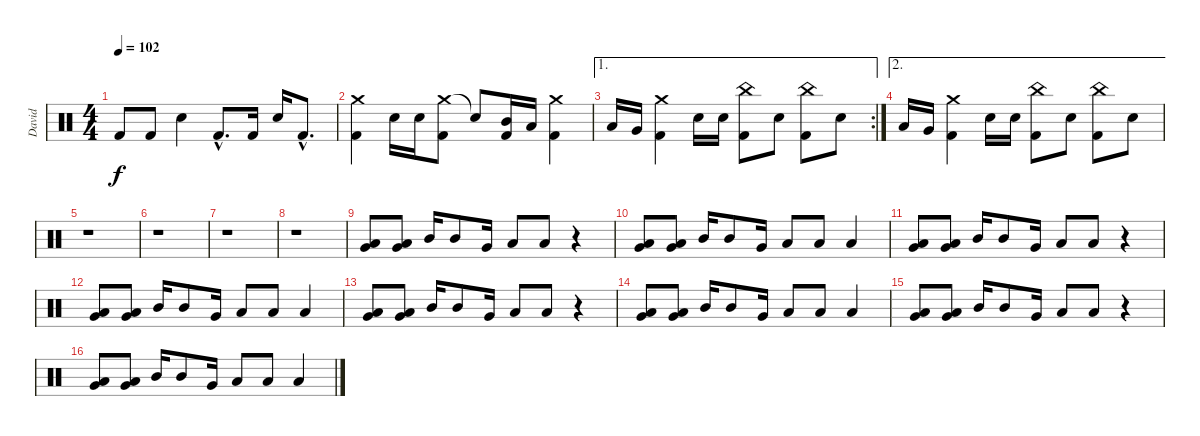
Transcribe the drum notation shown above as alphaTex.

\track ("David" "David") {instrument percussion}
\staff {score}
\articulation defaults
\ts (4 4)
\tempo 102
\clef neutral
\ks c "Kick (hit) 2".8{dy f} "Kick (hit) 2".8 "Snare (hit) 2".4 "Kick (hit) 2"{hac}.8{d} "Kick (hit) 2".16 "Snare (hit) 2".16 "Kick (hit) 2"{hac}.8{d}
|
("Crash medium (hit)" "Kick (hit) 2").4 "Snare (hit) 2".16 "Snare (hit) 2".16 ("Crash medium (hit)" "Kick (hit) 2").8 "Snare (hit)"{t}.8 ("Mid Tom (hit)" "Kick (hit) 2").16 "Low Tom (hit)".16 ("Crash medium (hit)" "Kick (hit) 2").4 |
\ae 1
\rc 2 "Low Tom (hit)".16 "Very Low Tom (hit)".16
("Crash medium (hit)" "Kick (hit) 2").4 "Snare (hit) 2".16 "Snare (hit) 2".16 ("China (hit)" "Kick (hit) 2").8 "Snare (hit) 2".8 ("China (hit)" "Kick (hit) 2").8 "Snare (hit) 2".8 |
\ae 2 "Low Tom (hit)".16 "Very Low Tom (hit)".16
("Crash medium (hit)" "Kick (hit) 2").4 "Snare (hit) 2".16 "Snare (hit) 2".16 ("China (hit)" "Kick (hit) 2").8 "Snare (hit) 2".8 ("China (hit)" "Kick (hit) 2").8 "Snare (hit) 2".8 |
r.1 |
r.1 |
r.1 |
r.1 |
("Low Tom (hit)" "Very Low Tom (hit)").8 ("Low Tom (hit)" "Very Low Tom (hit)").8 "Mid Tom (hit)".16 "Mid Tom (hit)".8 "Very Low Tom (hit)".16 "Low Tom (hit)".8 "Low Tom (hit)".8 r.4 |
("Low Tom (hit)" "Very Low Tom (hit)").8 ("Low Tom (hit)" "Very Low Tom (hit)").8 "Mid Tom (hit)".16 "Mid Tom (hit)".8 "Very Low Tom (hit)".16 "Low Tom (hit)".8 "Low Tom (hit)".8 "Low Floor Tom (hit)".4 |
("Low Tom (hit)" "Very Low Tom (hit)").8 ("Low Tom (hit)" "Very Low Tom (hit)").8 "Mid Tom (hit)".16 "Mid Tom (hit)".8 "Very Low Tom (hit)".16 "Low Tom (hit)".8 "Low Tom (hit)".8 r.4 |
("Low Tom (hit)" "Very Low Tom (hit)").8 ("Low Tom (hit)" "Very Low Tom (hit)").8 "Mid Tom (hit)".16 "Mid Tom (hit)".8 "Very Low Tom (hit)".16 "Low Tom (hit)".8 "Low Tom (hit)".8 "Low Floor Tom (hit)".4 |
("Low Tom (hit)" "Very Low Tom (hit)").8 ("Low Tom (hit)" "Very Low Tom (hit)").8 "Mid Tom (hit)".16 "Mid Tom (hit)".8 "Very Low Tom (hit)".16 "Low Tom (hit)".8 "Low Tom (hit)".8 r.4 |
("Low Tom (hit)" "Very Low Tom (hit)").8 ("Low Tom (hit)" "Very Low Tom (hit)").8 "Mid Tom (hit)".16 "Mid Tom (hit)".8 "Very Low Tom (hit)".16 "Low Tom (hit)".8 "Low Tom (hit)".8 "Low Floor Tom (hit)".4 |
("Low Tom (hit)" "Very Low Tom (hit)").8 ("Low Tom (hit)" "Very Low Tom (hit)").8 "Mid Tom (hit)".16 "Mid Tom (hit)".8 "Very Low Tom (hit)".16 "Low Tom (hit)".8 "Low Tom (hit)".8 r.4 |
("Low Tom (hit)" "Very Low Tom (hit)").8 ("Low Tom (hit)" "Very Low Tom (hit)").8 "Mid Tom (hit)".16 "Mid Tom (hit)".8 "Very Low Tom (hit)".16 "Low Tom (hit)".8 "Low Tom (hit)".8 "Low Floor Tom (hit)".4
